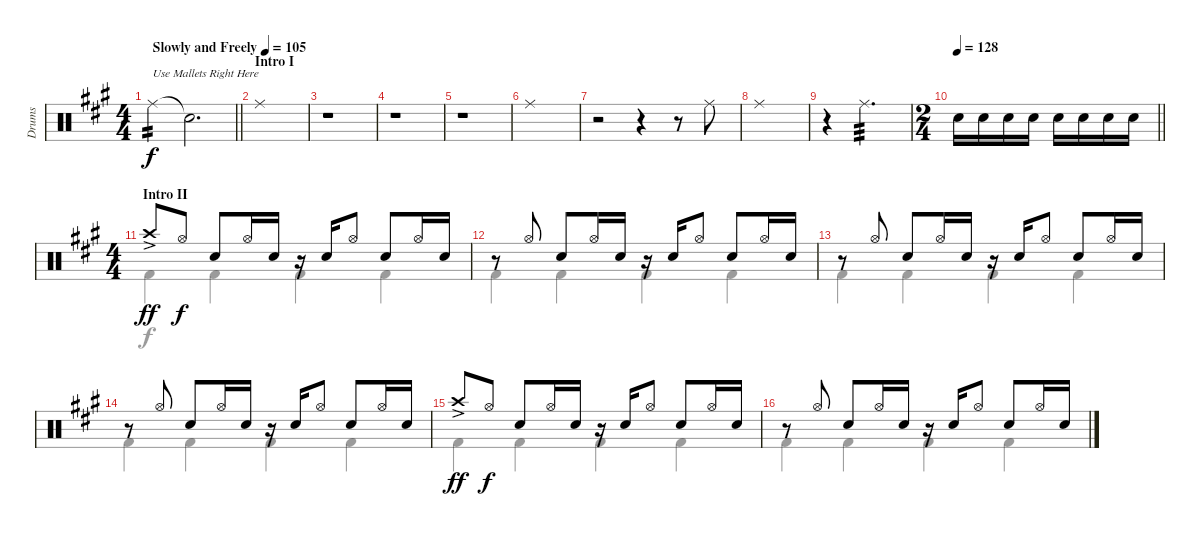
\track ("Drums" "Drums") {instrument percussion}
\staff {score}
\articulation defaults
\voice
\ts (4 4)
\tempo (105 "Slowly and Freely")
\clef neutral
\barLineRight lightlight
\ks a "Ride (middle)".4{txt "Use Mallets Right Here" tp 2 dy f volume 0} "Snare (hit)"{t}.2{d volume 13}
|
\section ("" "Intro I")
"Ride (middle)".1 |
r.1 |
r.1 |
r.1 |
"Ride (middle)".1 |
r.2 r.4 r.8 "Ride (middle)".8 |
"Ride (middle)".1 |
r.4{volume 0} "Ride (middle)".2{d tp 3 volume 13} |
\ts (2 4)
\tempo 128
\barLineRight lightlight "Snare (hit) 2".16 "Snare (hit) 2".16 "Snare (hit) 2".16 "Snare (hit) 2".16 "Snare (hit) 2".16 "Snare (hit) 2".16 "Snare (hit) 2".16 "Snare (hit) 2".16
|
\ts (4 4)
\section ("" "Intro II")
"Crash high (hit)"{ac}.8{dy ff} "Hi-Hat (open)".8{dy f} "Snare (hit) 2".8 "Hi-Hat (open)".16 "Snare (hit) 2".16 r.16 "Snare (hit) 2".16 "Hi-Hat (open)".8 "Snare (hit) 2".8 "Hi-Hat (open)".16 "Snare (hit) 2".16 |
r.8 "Hi-Hat (open)".8 "Snare (hit) 2".8 "Hi-Hat (open)".16 "Snare (hit) 2".16 r.16 "Snare (hit) 2".16 "Hi-Hat (open)".8 "Snare (hit) 2".8 "Hi-Hat (open)".16 "Snare (hit) 2".16 |
r.8 "Hi-Hat (open)".8 "Snare (hit) 2".8 "Hi-Hat (open)".16 "Snare (hit) 2".16 r.16 "Snare (hit) 2".16 "Hi-Hat (open)".8 "Snare (hit) 2".8 "Hi-Hat (open)".16 "Snare (hit) 2".16 |
r.8 "Hi-Hat (open)".8 "Snare (hit) 2".8 "Hi-Hat (open)".16 "Snare (hit) 2".16 r.16 "Snare (hit) 2".16 "Hi-Hat (open)".8 "Snare (hit) 2".8 "Hi-Hat (open)".16 "Snare (hit) 2".16 |
"Crash high (hit)"{ac}.8{dy ff} "Hi-Hat (open)".8{dy f} "Snare (hit) 2".8 "Hi-Hat (open)".16 "Snare (hit) 2".16 r.16 "Snare (hit) 2".16 "Hi-Hat (open)".8 "Snare (hit) 2".8 "Hi-Hat (open)".16 "Snare (hit) 2".16 |
r.8 "Hi-Hat (open)".8 "Snare (hit) 2".8 "Hi-Hat (open)".16 "Snare (hit) 2".16 r.16 "Snare (hit) 2".16 "Hi-Hat (open)".8 "Snare (hit) 2".8 "Hi-Hat (open)".16 "Snare (hit) 2".16
\voice
\clef neutral
\ottava regular
\simile none
\barLineRight lightlight
\ks a
|
|
|
|
|
|
|
|
|
\barLineRight lightlight
|
"Kick (hit) 2".4 "Kick (hit) 2".4 "Kick (hit) 2".4 "Kick (hit) 2".4 |
"Kick (hit) 2".4 "Kick (hit) 2".4 "Kick (hit) 2".4 "Kick (hit) 2".4 |
"Kick (hit) 2".4 "Kick (hit) 2".4 "Kick (hit) 2".4 "Kick (hit) 2".4 |
"Kick (hit) 2".4 "Kick (hit) 2".4 "Kick (hit) 2".4 "Kick (hit) 2".4 |
"Kick (hit) 2".4 "Kick (hit) 2".4 "Kick (hit) 2".4 "Kick (hit) 2".4 |
"Kick (hit) 2".4 "Kick (hit) 2".4 "Kick (hit) 2".4 "Kick (hit) 2".4
